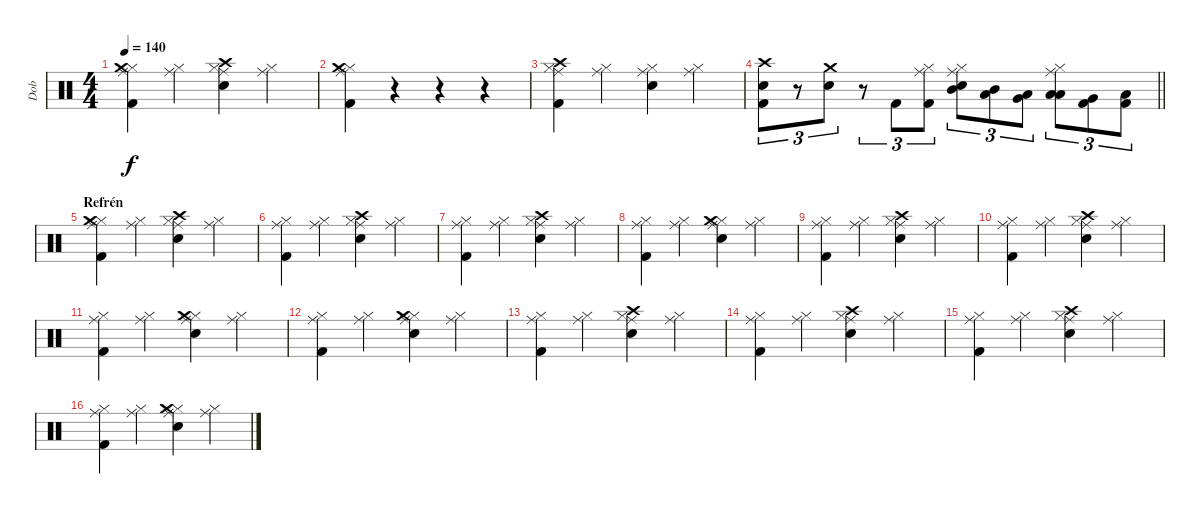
\track ("Dob" "Dob") {instrument percussion}
\staff {score}
\articulation defaults
\ts (4 4)
\tempo 140
\clef neutral
\ks c
("Hi-Hat (closed)" "Crash medium (hit)" "Kick (hit) 2" "Ride (middle)").4{dy f} ("Hi-Hat (closed)" "Ride (middle)").4 ("Hi-Hat (closed)" "Crash high (hit)" "Electric Snare (hit)" "Ride (middle)").4 ("Hi-Hat (closed)" "Ride (middle)").4 |
("Hi-Hat (closed)" "Crash medium (hit)" "Kick (hit) 2" "Ride (middle)").4 r.4 r.4 r.4 |
("Hi-Hat (closed)" "Crash high (hit)" "Kick (hit) 2" "Ride (middle)").4 ("Hi-Hat (closed)" "Ride (middle)").4 ("Hi-Hat (closed)" "Electric Snare (hit)" "Ride (middle)").4 ("Hi-Hat (closed)" "Ride (middle)").4 |
\barLineRight lightlight
("Crash high (hit)" "Kick (hit) 2" "Electric Snare (hit)").8{tu (3 2)} r.8{tu (3 2)} ("Crash medium (hit)" "Electric Snare (hit)").8{tu (3 2)} r.8{tu (3 2)} "Kick (hit) 2".8{tu (3 2)} ("Hi-Hat (closed)" "Kick (hit) 2" "Ride (middle)").8{tu (3 2)} ("Hi-Hat (closed)" "Mid Tom (hit)" "Electric Snare (hit)" "Ride (middle)").8{tu (3 2)} ("Low Tom (hit)" "Mid Tom (hit)").8{tu (3 2)} ("Very Low Tom (hit)" "Low Tom (hit)").8{tu (3 2)} ("Hi-Hat (closed)" "Low Floor Tom (hit)" "Low Tom (hit)" "Ride (middle)").8{tu (3 2)} ("Kick (hit) 2" "Very Low Tom (hit)").8{tu (3 2)} ("Kick (hit) 2" "Low Floor Tom (hit)").8{tu (3 2)} |
\section ("" "Refrén")
("Hi-Hat (closed)" "Crash medium (hit)" "Kick (hit) 2" "Ride (middle)").4 ("Hi-Hat (closed)" "Ride (middle)").4 ("Hi-Hat (closed)" "Crash high (hit)" "Electric Snare (hit)" "Ride (middle)").4 ("Hi-Hat (closed)" "Ride (middle)").4 |
("Hi-Hat (closed)" "Kick (hit) 2" "Ride (middle)").4 ("Hi-Hat (closed)" "Ride (middle)").4 ("Hi-Hat (closed)" "Crash high (hit)" "Electric Snare (hit)" "Ride (middle)").4 ("Hi-Hat (closed)" "Ride (middle)").4 |
("Hi-Hat (closed)" "Kick (hit) 2" "Ride (middle)").4 ("Hi-Hat (closed)" "Ride (middle)").4 ("Hi-Hat (closed)" "Crash high (hit)" "Electric Snare (hit)" "Ride (middle)").4 ("Hi-Hat (closed)" "Ride (middle)").4 |
("Hi-Hat (closed)" "Kick (hit) 2" "Ride (middle)").4 ("Hi-Hat (closed)" "Ride (middle)").4 ("Hi-Hat (closed)" "Crash medium (hit)" "Electric Snare (hit)" "Ride (middle)").4 ("Hi-Hat (closed)" "Ride (middle)").4 |
("Hi-Hat (closed)" "Kick (hit) 2" "Ride (middle)").4 ("Hi-Hat (closed)" "Ride (middle)").4 ("Hi-Hat (closed)" "Crash high (hit)" "Electric Snare (hit)" "Ride (middle)").4 ("Hi-Hat (closed)" "Ride (middle)").4 |
("Hi-Hat (closed)" "Kick (hit) 2" "Ride (middle)").4 ("Hi-Hat (closed)" "Ride (middle)").4 ("Hi-Hat (closed)" "Crash high (hit)" "Electric Snare (hit)" "Ride (middle)").4 ("Hi-Hat (closed)" "Ride (middle)").4 |
("Hi-Hat (closed)" "Kick (hit) 2" "Ride (middle)").4 ("Hi-Hat (closed)" "Ride (middle)").4 ("Hi-Hat (closed)" "Crash medium (hit)" "Electric Snare (hit)" "Ride (middle)").4 ("Hi-Hat (closed)" "Ride (middle)").4 |
("Hi-Hat (closed)" "Kick (hit) 2" "Ride (middle)").4 ("Hi-Hat (closed)" "Ride (middle)").4 ("Hi-Hat (closed)" "Crash medium (hit)" "Electric Snare (hit)" "Ride (middle)").4 ("Hi-Hat (closed)" "Ride (middle)").4 |
("Hi-Hat (closed)" "Kick (hit) 2" "Ride (middle)").4 ("Hi-Hat (closed)" "Ride (middle)").4 ("Hi-Hat (closed)" "Crash high (hit)" "Electric Snare (hit)" "Ride (middle)").4 ("Hi-Hat (closed)" "Ride (middle)").4 |
("Hi-Hat (closed)" "Kick (hit) 2" "Ride (middle)").4 ("Hi-Hat (closed)" "Ride (middle)").4 ("Hi-Hat (closed)" "Crash high (hit)" "Electric Snare (hit)" "Ride (middle)").4 ("Hi-Hat (closed)" "Ride (middle)").4 |
("Hi-Hat (closed)" "Kick (hit) 2" "Ride (middle)").4 ("Hi-Hat (closed)" "Ride (middle)").4 ("Hi-Hat (closed)" "Crash high (hit)" "Electric Snare (hit)" "Ride (middle)").4 ("Hi-Hat (closed)" "Ride (middle)").4 |
("Hi-Hat (closed)" "Kick (hit) 2" "Ride (middle)").4 ("Hi-Hat (closed)" "Ride (middle)").4 ("Hi-Hat (closed)" "Crash medium (hit)" "Electric Snare (hit)" "Ride (middle)").4 ("Hi-Hat (closed)" "Ride (middle)").4
